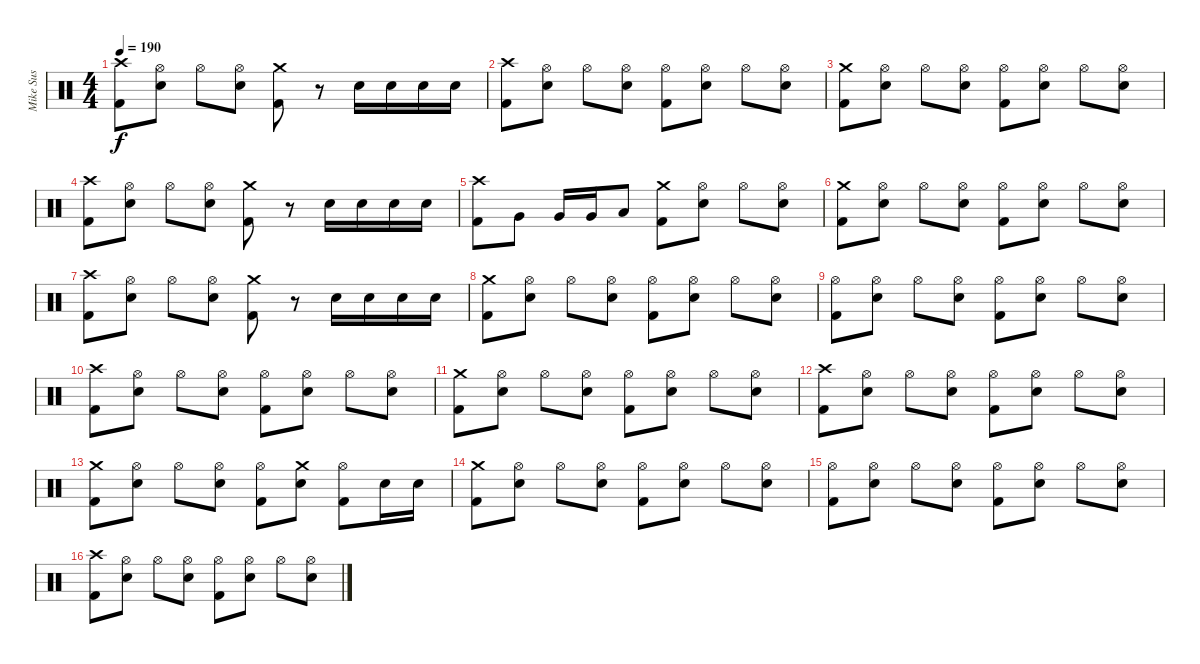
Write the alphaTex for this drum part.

\track ("Mike Sus" "Mike Sus") {instrument percussion}
\staff {score}
\articulation defaults
\ts (4 4)
\tempo 190
\clef neutral
\ks c
("Crash high (hit)" "Kick (hit) 2").8{dy f} ("Hi-Hat (open)" "Electric Snare (hit)").8 "Hi-Hat (open)".8 ("Hi-Hat (open)" "Electric Snare (hit)").8 ("Crash medium (hit)" "Kick (hit) 2").8 r.8 "Electric Snare (hit)".16 "Electric Snare (hit)".16 "Electric Snare (hit)".16 "Electric Snare (hit)".16 |
("Crash high (hit)" "Kick (hit) 2").8 ("Hi-Hat (open)" "Electric Snare (hit)").8 "Hi-Hat (open)".8 ("Hi-Hat (open)" "Electric Snare (hit)").8 ("Hi-Hat (open)" "Kick (hit) 2").8 ("Hi-Hat (open)" "Electric Snare (hit)").8 "Hi-Hat (open)".8 ("Hi-Hat (open)" "Electric Snare (hit)").8 |
("Crash medium (hit)" "Kick (hit) 2").8 ("Hi-Hat (open)" "Electric Snare (hit)").8 "Hi-Hat (open)".8 ("Hi-Hat (open)" "Electric Snare (hit)").8 ("Hi-Hat (open)" "Kick (hit) 2").8 ("Hi-Hat (open)" "Electric Snare (hit)").8 "Hi-Hat (open)".8 ("Hi-Hat (open)" "Electric Snare (hit)").8 |
("Crash high (hit)" "Kick (hit) 2").8 ("Hi-Hat (open)" "Electric Snare (hit)").8 "Hi-Hat (open)".8 ("Hi-Hat (open)" "Electric Snare (hit)").8 ("Crash medium (hit)" "Kick (hit) 2").8 r.8 "Electric Snare (hit)".16 "Electric Snare (hit)".16 "Electric Snare (hit)".16 "Electric Snare (hit)".16 |
("Crash high (hit)" "Kick (hit) 2").8 "Very Low Tom (hit)".8 "Very Low Tom (hit)".16 "Very Low Tom (hit)".16 "Low Floor Tom (hit)".8 ("Crash medium (hit)" "Kick (hit) 2").8 ("Hi-Hat (open)" "Electric Snare (hit)").8 "Hi-Hat (open)".8 ("Hi-Hat (open)" "Electric Snare (hit)").8 |
("Crash medium (hit)" "Kick (hit) 2").8 ("Hi-Hat (open)" "Electric Snare (hit)").8 "Hi-Hat (open)".8 ("Hi-Hat (open)" "Electric Snare (hit)").8 ("Hi-Hat (open)" "Kick (hit) 2").8 ("Hi-Hat (open)" "Electric Snare (hit)").8 "Hi-Hat (open)".8 ("Hi-Hat (open)" "Electric Snare (hit)").8 |
("Crash high (hit)" "Kick (hit) 2").8 ("Hi-Hat (open)" "Electric Snare (hit)").8 "Hi-Hat (open)".8 ("Hi-Hat (open)" "Electric Snare (hit)").8 ("Crash medium (hit)" "Kick (hit) 2").8 r.8 "Electric Snare (hit)".16 "Electric Snare (hit)".16 "Electric Snare (hit)".16 "Electric Snare (hit)".16 |
("Crash medium (hit)" "Kick (hit) 2").8 ("Hi-Hat (open)" "Electric Snare (hit)").8 "Hi-Hat (open)".8 ("Hi-Hat (open)" "Electric Snare (hit)").8 ("Hi-Hat (open)" "Kick (hit) 2").8 ("Hi-Hat (open)" "Electric Snare (hit)").8 "Hi-Hat (open)".8 ("Hi-Hat (open)" "Electric Snare (hit)").8 |
("Hi-Hat (open)" "Kick (hit) 2").8 ("Hi-Hat (open)" "Electric Snare (hit)").8 "Hi-Hat (open)".8 ("Hi-Hat (open)" "Electric Snare (hit)").8 ("Hi-Hat (open)" "Kick (hit) 2").8 ("Hi-Hat (open)" "Electric Snare (hit)").8 "Hi-Hat (open)".8 ("Hi-Hat (open)" "Electric Snare (hit)").8 |
("Crash high (hit)" "Kick (hit) 2").8 ("Hi-Hat (open)" "Electric Snare (hit)").8 "Hi-Hat (open)".8 ("Hi-Hat (open)" "Electric Snare (hit)").8 ("Hi-Hat (open)" "Kick (hit) 2").8 ("Hi-Hat (open)" "Electric Snare (hit)").8 "Hi-Hat (open)".8 ("Hi-Hat (open)" "Electric Snare (hit)").8 |
("Crash medium (hit)" "Kick (hit) 2").8 ("Hi-Hat (open)" "Electric Snare (hit)").8 "Hi-Hat (open)".8 ("Hi-Hat (open)" "Electric Snare (hit)").8 ("Hi-Hat (open)" "Kick (hit) 2").8 ("Hi-Hat (open)" "Electric Snare (hit)").8 "Hi-Hat (open)".8 ("Hi-Hat (open)" "Electric Snare (hit)").8 |
("Crash high (hit)" "Kick (hit) 2").8 ("Hi-Hat (open)" "Electric Snare (hit)").8 "Hi-Hat (open)".8 ("Hi-Hat (open)" "Electric Snare (hit)").8 ("Hi-Hat (open)" "Kick (hit) 2").8 ("Hi-Hat (open)" "Electric Snare (hit)").8 "Hi-Hat (open)".8 ("Hi-Hat (open)" "Electric Snare (hit)").8 |
("Crash medium (hit)" "Kick (hit) 2").8 ("Hi-Hat (open)" "Electric Snare (hit)").8 "Hi-Hat (open)".8 ("Hi-Hat (open)" "Electric Snare (hit)").8 ("Hi-Hat (open)" "Kick (hit) 2").8 ("Crash medium (hit)" "Electric Snare (hit)").8 ("Hi-Hat (open)" "Kick (hit) 2").8 "Electric Snare (hit)".16 "Electric Snare (hit)".16 |
("Crash medium (hit)" "Kick (hit) 2").8 ("Hi-Hat (open)" "Electric Snare (hit)").8 "Hi-Hat (open)".8 ("Hi-Hat (open)" "Electric Snare (hit)").8 ("Hi-Hat (open)" "Kick (hit) 2").8 ("Hi-Hat (open)" "Electric Snare (hit)").8 "Hi-Hat (open)".8 ("Hi-Hat (open)" "Electric Snare (hit)").8 |
("Hi-Hat (open)" "Kick (hit) 2").8 ("Hi-Hat (open)" "Electric Snare (hit)").8 "Hi-Hat (open)".8 ("Hi-Hat (open)" "Electric Snare (hit)").8 ("Hi-Hat (open)" "Kick (hit) 2").8 ("Hi-Hat (open)" "Electric Snare (hit)").8 "Hi-Hat (open)".8 ("Hi-Hat (open)" "Electric Snare (hit)").8 |
("Crash high (hit)" "Kick (hit) 2").8 ("Hi-Hat (open)" "Electric Snare (hit)").8 "Hi-Hat (open)".8 ("Hi-Hat (open)" "Electric Snare (hit)").8 ("Hi-Hat (open)" "Kick (hit) 2").8 ("Hi-Hat (open)" "Electric Snare (hit)").8 "Hi-Hat (open)".8 ("Hi-Hat (open)" "Electric Snare (hit)").8
